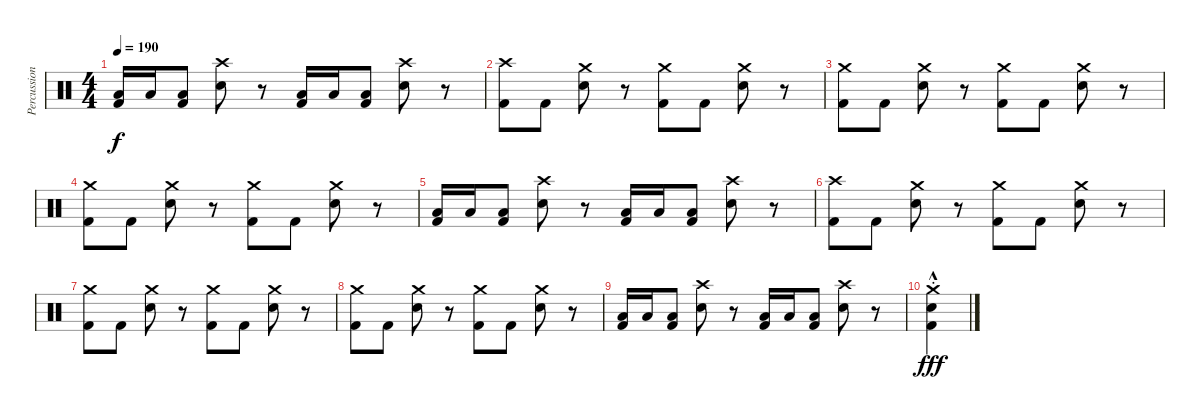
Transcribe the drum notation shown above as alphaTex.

\track ("Percussion" "Percussion") {instrument percussion}
\staff {score}
\articulation defaults
\ts (4 4)
\tempo 190
\clef neutral
\ks c
("Low Floor Tom (hit)" "Kick (hit) 2").16{dy f} "Low Floor Tom (hit)".16 ("Low Floor Tom (hit)" "Kick (hit) 2").8 ("Crash high (hit)" "Snare (hit) 2").8 r.8 ("Low Floor Tom (hit)" "Kick (hit) 2").16 "Low Floor Tom (hit)".16 ("Low Floor Tom (hit)" "Kick (hit) 2").8 ("Crash high (hit)" "Snare (hit) 2").8 r.8 |
("Crash high (hit)" "Kick (hit) 2").8 "Kick (hit) 2".8 ("Crash medium (hit)" "Snare (hit) 2").8 r.8 ("Crash medium (hit)" "Kick (hit) 2").8 "Kick (hit) 2".8 ("Crash medium (hit)" "Snare (hit) 2").8 r.8 |
("Crash medium (hit)" "Kick (hit) 2").8 "Kick (hit) 2".8 ("Crash medium (hit)" "Snare (hit) 2").8 r.8 ("Crash medium (hit)" "Kick (hit) 2").8 "Kick (hit) 2".8 ("Crash medium (hit)" "Snare (hit) 2").8 r.8 |
("Crash medium (hit)" "Kick (hit) 2").8 "Kick (hit) 2".8 ("Crash medium (hit)" "Snare (hit) 2").8 r.8 ("Crash medium (hit)" "Kick (hit) 2").8 "Kick (hit) 2".8 ("Crash medium (hit)" "Snare (hit) 2").8 r.8 |
("Low Floor Tom (hit)" "Kick (hit) 2").16 "Low Floor Tom (hit)".16 ("Low Floor Tom (hit)" "Kick (hit) 2").8 ("Crash high (hit)" "Snare (hit) 2").8 r.8 ("Low Floor Tom (hit)" "Kick (hit) 2").16 "Low Floor Tom (hit)".16 ("Low Floor Tom (hit)" "Kick (hit) 2").8 ("Crash high (hit)" "Snare (hit) 2").8 r.8 |
("Crash high (hit)" "Kick (hit) 2").8 "Kick (hit) 2".8 ("Crash medium (hit)" "Snare (hit) 2").8 r.8 ("Crash medium (hit)" "Kick (hit) 2").8 "Kick (hit) 2".8 ("Crash medium (hit)" "Snare (hit) 2").8 r.8 |
("Crash medium (hit)" "Kick (hit) 2").8 "Kick (hit) 2".8 ("Crash medium (hit)" "Snare (hit) 2").8 r.8 ("Crash medium (hit)" "Kick (hit) 2").8 "Kick (hit) 2".8 ("Crash medium (hit)" "Snare (hit) 2").8 r.8 |
("Crash medium (hit)" "Kick (hit) 2").8 "Kick (hit) 2".8 ("Crash medium (hit)" "Snare (hit) 2").8 r.8 ("Crash medium (hit)" "Kick (hit) 2").8 "Kick (hit) 2".8 ("Crash medium (hit)" "Snare (hit) 2").8 r.8 |
("Low Floor Tom (hit)" "Kick (hit) 2").16 "Low Floor Tom (hit)".16 ("Low Floor Tom (hit)" "Kick (hit) 2").8 ("Crash high (hit)" "Snare (hit) 2").8 r.8 ("Low Floor Tom (hit)" "Kick (hit) 2").16 "Low Floor Tom (hit)".16 ("Low Floor Tom (hit)" "Kick (hit) 2").8 ("Crash high (hit)" "Snare (hit) 2").8 r.8 |
("Crash medium (hit)"{hac st} "Snare (hit) 2" "Kick (hit) 2").4{dy fff}
